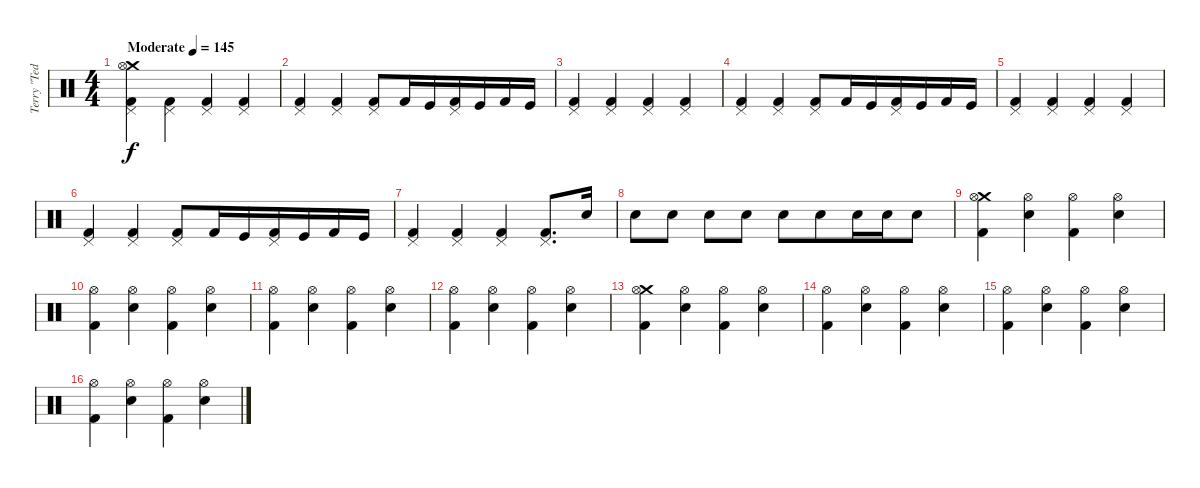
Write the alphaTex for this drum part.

\track ("Terry \"Ted\" Bozzio" "Terry \"Ted") {instrument percussion}
\staff {score}
\articulation defaults
\ts (4 4)
\tempo (145 "Moderate")
\clef neutral
\ks c
("Crash medium (hit)" "Hi-Hat (open)" "Pedal Hi-Hat (hit)" "Kick (hit) 2").4{dy f beam merge} ("Pedal Hi-Hat (hit)" "Kick (hit) 2").4 ("Pedal Hi-Hat (hit)" "Kick (hit) 2").4 ("Pedal Hi-Hat (hit)" "Kick (hit) 2").4 |
("Pedal Hi-Hat (hit)" "Kick (hit) 2").4 ("Pedal Hi-Hat (hit)" "Kick (hit) 2").4{beam merge} ("Pedal Hi-Hat (hit)" "Kick (hit) 2").8{beam merge} "Kick (hit) 2".16 "Kick (hit)".16{beam merge} ("Pedal Hi-Hat (hit)" "Kick (hit) 2").16{beam merge} "Kick (hit)".16{beam merge} "Kick (hit) 2".16{beam merge} "Kick (hit)".16 |
("Pedal Hi-Hat (hit)" "Kick (hit) 2").4{beam merge} ("Pedal Hi-Hat (hit)" "Kick (hit) 2").4 ("Pedal Hi-Hat (hit)" "Kick (hit) 2").4 ("Pedal Hi-Hat (hit)" "Kick (hit) 2").4 |
("Pedal Hi-Hat (hit)" "Kick (hit) 2").4 ("Pedal Hi-Hat (hit)" "Kick (hit) 2").4{beam merge} ("Pedal Hi-Hat (hit)" "Kick (hit) 2").8{beam merge} "Kick (hit) 2".16 "Kick (hit)".16{beam merge} ("Pedal Hi-Hat (hit)" "Kick (hit) 2").16{beam merge} "Kick (hit)".16{beam merge} "Kick (hit) 2".16{beam merge} "Kick (hit)".16 |
("Pedal Hi-Hat (hit)" "Kick (hit) 2").4{beam merge} ("Pedal Hi-Hat (hit)" "Kick (hit) 2").4 ("Pedal Hi-Hat (hit)" "Kick (hit) 2").4 ("Pedal Hi-Hat (hit)" "Kick (hit) 2").4 |
("Pedal Hi-Hat (hit)" "Kick (hit) 2").4 ("Pedal Hi-Hat (hit)" "Kick (hit) 2").4{beam merge} ("Pedal Hi-Hat (hit)" "Kick (hit) 2").8{beam merge} "Kick (hit) 2".16 "Kick (hit)".16{beam merge} ("Pedal Hi-Hat (hit)" "Kick (hit) 2").16{beam merge} "Kick (hit)".16{beam merge} "Kick (hit) 2".16{beam merge} "Kick (hit)".16 |
("Pedal Hi-Hat (hit)" "Kick (hit) 2").4{beam merge} ("Pedal Hi-Hat (hit)" "Kick (hit) 2").4 ("Pedal Hi-Hat (hit)" "Kick (hit) 2").4 ("Pedal Hi-Hat (hit)" "Kick (hit) 2").8{d} "Electric Snare (hit)".16 |
"Electric Snare (hit)".8{beam merge} "Electric Snare (hit)".8 "Electric Snare (hit)".8 "Electric Snare (hit)".8 "Electric Snare (hit)".8 "Electric Snare (hit)".8{beam merge} "Electric Snare (hit)".16 "Electric Snare (hit)".16{beam merge} "Electric Snare (hit)".8 |
("Crash medium (hit)" "Hi-Hat (open)" "Kick (hit) 2").4 ("Hi-Hat (open)" "Electric Snare (hit)").4{beam merge} ("Hi-Hat (open)" "Kick (hit) 2").4 ("Hi-Hat (open)" "Electric Snare (hit)").4 |
("Hi-Hat (open)" "Kick (hit) 2").4{beam merge} ("Hi-Hat (open)" "Electric Snare (hit)").4 ("Hi-Hat (open)" "Kick (hit) 2").4 ("Hi-Hat (open)" "Electric Snare (hit)").4 |
("Hi-Hat (open)" "Kick (hit) 2").4 ("Hi-Hat (open)" "Electric Snare (hit)").4{beam merge} ("Hi-Hat (open)" "Kick (hit) 2").4 ("Hi-Hat (open)" "Electric Snare (hit)").4 |
("Hi-Hat (open)" "Kick (hit) 2").4{beam merge} ("Hi-Hat (open)" "Electric Snare (hit)").4 ("Hi-Hat (open)" "Kick (hit) 2").4 ("Hi-Hat (open)" "Electric Snare (hit)").4 |
("Crash medium (hit)" "Hi-Hat (open)" "Kick (hit) 2").4 ("Hi-Hat (open)" "Electric Snare (hit)").4{beam merge} ("Hi-Hat (open)" "Kick (hit) 2").4 ("Hi-Hat (open)" "Electric Snare (hit)").4 |
("Hi-Hat (open)" "Kick (hit) 2").4{beam merge} ("Hi-Hat (open)" "Electric Snare (hit)").4 ("Hi-Hat (open)" "Kick (hit) 2").4 ("Hi-Hat (open)" "Electric Snare (hit)").4 |
("Hi-Hat (open)" "Kick (hit) 2").4 ("Hi-Hat (open)" "Electric Snare (hit)").4{beam merge} ("Hi-Hat (open)" "Kick (hit) 2").4 ("Hi-Hat (open)" "Electric Snare (hit)").4 |
("Hi-Hat (open)" "Kick (hit) 2").4{beam merge} ("Hi-Hat (open)" "Electric Snare (hit)").4 ("Hi-Hat (open)" "Kick (hit) 2").4 ("Hi-Hat (open)" "Electric Snare (hit)").4
